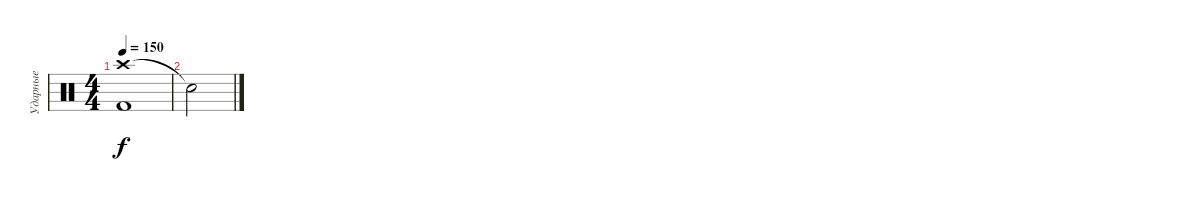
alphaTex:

\track ("Ударные" "Ударные") {instrument percussion}
\staff {score}
\articulation defaults
\ts (4 4)
\tempo 150
\clef neutral
\ks c
("Crash high (hit)" "Kick (hit) 2").1{dy f} |
"Snare (hit)"{t}.2
